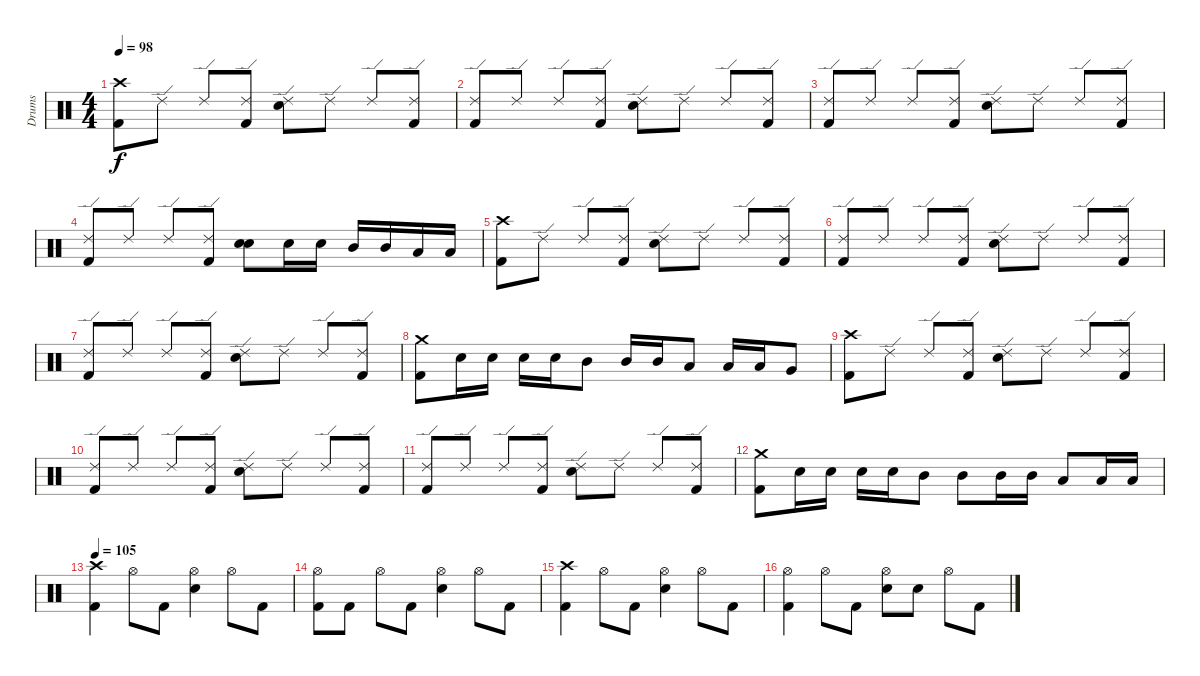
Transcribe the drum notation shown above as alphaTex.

\track ("Drums" "Drums") {instrument percussion}
\staff {score}
\articulation defaults
\ts (4 4)
\tempo 98
\clef neutral
\ks c
("Crash high (hit)" "Kick (hit) 2").8{dy f} "Ride (edge) 2".8 "Ride (edge) 2".8 ("Ride (edge) 2" "Kick (hit) 2").8 ("Ride (edge) 2" "Electric Snare (hit)").8 "Ride (edge) 2".8 "Ride (edge) 2".8 ("Ride (edge) 2" "Kick (hit) 2").8 |
("Ride (edge) 2" "Kick (hit) 2").8 "Ride (edge) 2".8 "Ride (edge) 2".8 ("Ride (edge) 2" "Kick (hit) 2").8 ("Ride (edge) 2" "Electric Snare (hit)").8 "Ride (edge) 2".8 "Ride (edge) 2".8 ("Ride (edge) 2" "Kick (hit) 2").8 |
("Ride (edge) 2" "Kick (hit) 2").8 "Ride (edge) 2".8 "Ride (edge) 2".8 ("Ride (edge) 2" "Kick (hit) 2").8 ("Ride (edge) 2" "Electric Snare (hit)").8 "Ride (edge) 2".8 "Ride (edge) 2".8 ("Ride (edge) 2" "Kick (hit) 2").8 |
("Ride (edge) 2" "Kick (hit) 2").8 "Ride (edge) 2".8 "Ride (edge) 2".8 ("Ride (edge) 2" "Kick (hit) 2").8 ("Electric Snare (hit)" "Electric Snare (hit)").8{bu 60} "Electric Snare (hit)".16 "Electric Snare (hit)".16 "Mid Tom (hit)".16 "Mid Tom (hit)".16 "Low Tom (hit)".16 "Low Tom (hit)".16 |
("Crash high (hit)" "Kick (hit) 2").8 "Ride (edge) 2".8 "Ride (edge) 2".8 ("Ride (edge) 2" "Kick (hit) 2").8 ("Ride (edge) 2" "Electric Snare (hit)").8 "Ride (edge) 2".8 "Ride (edge) 2".8 ("Ride (edge) 2" "Kick (hit) 2").8 |
("Ride (edge) 2" "Kick (hit) 2").8 "Ride (edge) 2".8 "Ride (edge) 2".8 ("Ride (edge) 2" "Kick (hit) 2").8 ("Ride (edge) 2" "Electric Snare (hit)").8 "Ride (edge) 2".8 "Ride (edge) 2".8 ("Ride (edge) 2" "Kick (hit) 2").8 |
("Ride (edge) 2" "Kick (hit) 2").8 "Ride (edge) 2".8 "Ride (edge) 2".8 ("Ride (edge) 2" "Kick (hit) 2").8 ("Ride (edge) 2" "Electric Snare (hit)").8 "Ride (edge) 2".8 "Ride (edge) 2".8 ("Ride (edge) 2" "Kick (hit) 2").8 |
("Crash medium (hit)" "Kick (hit) 2").8 "Electric Snare (hit)".16 "Electric Snare (hit)".16 "Electric Snare (hit)".16 "Electric Snare (hit)".16 "Mid Tom (hit)".8 "Mid Tom (hit)".16 "Mid Tom (hit)".16 "Low Tom (hit)".8 "Low Tom (hit)".16 "Low Tom (hit)".16 "Very Low Tom (hit)".8 |
("Crash high (hit)" "Kick (hit) 2").8 "Ride (edge) 2".8 "Ride (edge) 2".8 ("Ride (edge) 2" "Kick (hit) 2").8 ("Ride (edge) 2" "Electric Snare (hit)").8 "Ride (edge) 2".8 "Ride (edge) 2".8 ("Ride (edge) 2" "Kick (hit) 2").8 |
("Ride (edge) 2" "Kick (hit) 2").8 "Ride (edge) 2".8 "Ride (edge) 2".8 ("Ride (edge) 2" "Kick (hit) 2").8 ("Ride (edge) 2" "Electric Snare (hit)").8 "Ride (edge) 2".8 "Ride (edge) 2".8 ("Ride (edge) 2" "Kick (hit) 2").8 |
("Ride (edge) 2" "Kick (hit) 2").8 "Ride (edge) 2".8 "Ride (edge) 2".8 ("Ride (edge) 2" "Kick (hit) 2").8 ("Ride (edge) 2" "Electric Snare (hit)").8 "Ride (edge) 2".8 "Ride (edge) 2".8 ("Ride (edge) 2" "Kick (hit) 2").8 |
("Crash medium (hit)" "Kick (hit) 2").8 "Electric Snare (hit)".16 "Electric Snare (hit)".16 "Electric Snare (hit)".16 "Electric Snare (hit)".16 "Mid Tom (hit)".8 "Mid Tom (hit)".8 "Mid Tom (hit)".16 "Mid Tom (hit)".16 "Low Tom (hit)".8 "Low Tom (hit)".16 "Low Tom (hit)".16 |
\tempo 105
("Crash high (hit)" "Kick (hit) 2").4 "Hi-Hat (open)".8 "Kick (hit) 2".8 ("Hi-Hat (open)" "Electric Snare (hit)").4 "Hi-Hat (open)".8 "Kick (hit) 2".8 |
("Hi-Hat (open)" "Kick (hit) 2").8 "Kick (hit) 2".8 "Hi-Hat (open)".8 "Kick (hit) 2".8 ("Hi-Hat (open)" "Electric Snare (hit)").4 "Hi-Hat (open)".8 "Kick (hit) 2".8 |
("Crash high (hit)" "Kick (hit) 2").4 "Hi-Hat (open)".8 "Kick (hit) 2".8 ("Hi-Hat (open)" "Electric Snare (hit)").4 "Hi-Hat (open)".8 "Kick (hit) 2".8 |
("Hi-Hat (open)" "Kick (hit) 2").4 "Hi-Hat (open)".8 "Kick (hit) 2".8 ("Hi-Hat (open)" "Electric Snare (hit)").8 "Electric Snare (hit)".8 "Hi-Hat (open)".8 "Kick (hit) 2".8
